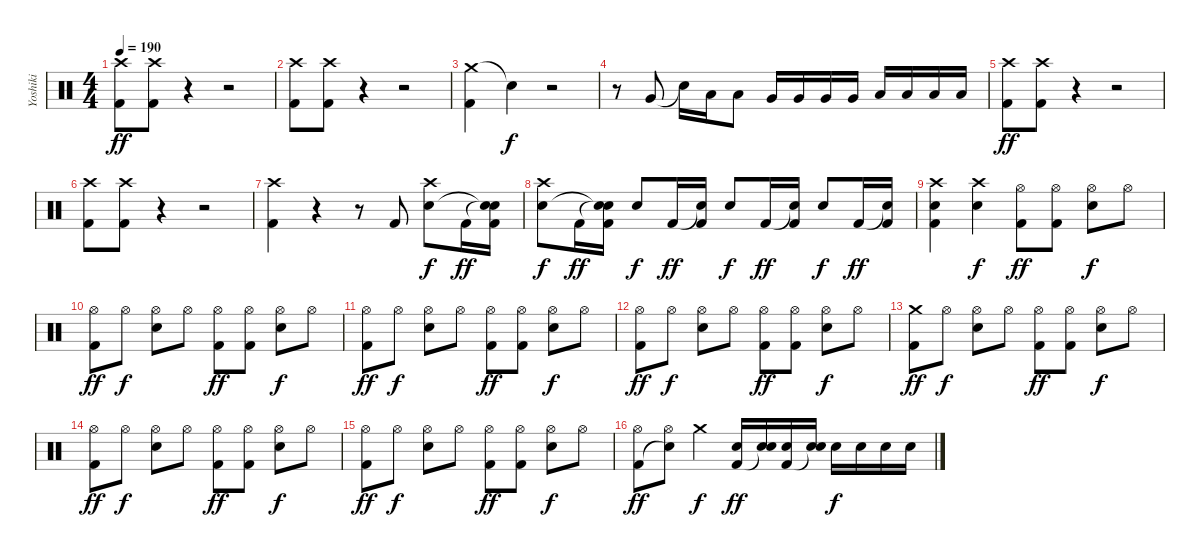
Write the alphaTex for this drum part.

\track ("Yoshiki" "Yoshiki") {instrument percussion}
\staff {score}
\articulation defaults
\ts (4 4)
\tempo 190
\clef neutral
\ks c
("Crash high (hit)" "Kick (hit) 2").8{dy ff} ("Crash high (hit)" "Kick (hit) 2").8 r.4 r.2 |
("Crash high (hit)" "Kick (hit) 2").8 ("Crash high (hit)" "Kick (hit) 2").8 r.4 r.2 |
("Crash medium (hit)" "Kick (hit) 2").4 "Snare (hit)"{t}.4{dy f} r.2 |
r.8 "Very Low Tom (hit)".8 "Snare (hit)"{t}.16 "Low Floor Tom (hit)".16 "Low Floor Tom (hit)".8 "Very Low Tom (hit)".16 "Very Low Tom (hit)".16 "Very Low Tom (hit)".16 "Very Low Tom (hit)".16 "Low Floor Tom (hit)".16 "Low Floor Tom (hit)".16 "Low Floor Tom (hit)".16 "Low Floor Tom (hit)".16 |
("Crash high (hit)" "Kick (hit) 2").8{dy ff} ("Crash high (hit)" "Kick (hit) 2").8 r.4 r.2 |
("Crash high (hit)" "Kick (hit) 2").8 ("Crash high (hit)" "Kick (hit) 2").8 r.4 r.2 |
("Crash high (hit)" "Kick (hit) 2").4 r.4 r.8 "Kick (hit) 2".8 ("Crash high (hit)" "Snare (hit) 2").8{dy f} "Kick (hit) 2".16{dy ff} ("Snare (hit)"{t} "Snare (hit)"{t} "Kick (hit) 2").16 |
("Crash high (hit)" "Snare (hit) 2").8{dy f} "Kick (hit) 2".16{dy ff} ("Snare (hit)"{t} "Snare (hit)"{t} "Kick (hit) 2").16 "Snare (hit) 2".8{dy f} "Kick (hit) 2".16{dy ff} ("Snare (hit)"{t} "Kick (hit) 2").16 "Snare (hit) 2".8{dy f} "Kick (hit) 2".16{dy ff} ("Snare (hit)"{t} "Kick (hit) 2").16 "Snare (hit) 2".8{dy f} "Kick (hit) 2".16{dy ff} ("Snare (hit)"{t} "Kick (hit) 2").16 |
("Crash high (hit)" "Snare (hit) 2" "Kick (hit) 2").4 ("Crash high (hit)" "Snare (hit) 2").4{dy f} ("Hi-Hat (open)" "Kick (hit) 2").8{dy ff} ("Hi-Hat (open)" "Kick (hit) 2").8 ("Hi-Hat (open)" "Snare (hit) 2").8{dy f} "Hi-Hat (open)".8 |
("Hi-Hat (open)" "Kick (hit) 2").8{dy ff} "Hi-Hat (open)".8{dy f} ("Hi-Hat (open)" "Snare (hit) 2").8 "Hi-Hat (open)".8 ("Hi-Hat (open)" "Kick (hit) 2").8{dy ff} ("Hi-Hat (open)" "Kick (hit) 2").8 ("Hi-Hat (open)" "Snare (hit) 2").8{dy f} "Hi-Hat (open)".8 |
("Hi-Hat (open)" "Kick (hit) 2").8{dy ff} "Hi-Hat (open)".8{dy f} ("Hi-Hat (open)" "Snare (hit) 2").8 "Hi-Hat (open)".8 ("Hi-Hat (open)" "Kick (hit) 2").8{dy ff} ("Hi-Hat (open)" "Kick (hit) 2").8 ("Hi-Hat (open)" "Snare (hit) 2").8{dy f} "Hi-Hat (open)".8 |
("Hi-Hat (open)" "Kick (hit) 2").8{dy ff} "Hi-Hat (open)".8{dy f} ("Hi-Hat (open)" "Snare (hit) 2").8 "Hi-Hat (open)".8 ("Hi-Hat (open)" "Kick (hit) 2").8{dy ff} ("Hi-Hat (open)" "Kick (hit) 2").8 ("Hi-Hat (open)" "Snare (hit) 2").8{dy f} "Hi-Hat (open)".8 |
("Crash medium (hit)" "Kick (hit) 2").8{dy ff} "Hi-Hat (open)".8{dy f} ("Hi-Hat (open)" "Snare (hit) 2").8 "Hi-Hat (open)".8 ("Hi-Hat (open)" "Kick (hit) 2").8{dy ff} ("Hi-Hat (open)" "Kick (hit) 2").8 ("Hi-Hat (open)" "Snare (hit) 2").8{dy f} "Hi-Hat (open)".8 |
("Hi-Hat (open)" "Kick (hit) 2").8{dy ff} "Hi-Hat (open)".8{dy f} ("Hi-Hat (open)" "Snare (hit) 2").8 "Hi-Hat (open)".8 ("Hi-Hat (open)" "Kick (hit) 2").8{dy ff} ("Hi-Hat (open)" "Kick (hit) 2").8 ("Hi-Hat (open)" "Snare (hit) 2").8{dy f} "Hi-Hat (open)".8 |
("Hi-Hat (open)" "Kick (hit) 2").8{dy ff} "Hi-Hat (open)".8{dy f} ("Hi-Hat (open)" "Snare (hit) 2").8 "Hi-Hat (open)".8 ("Hi-Hat (open)" "Kick (hit) 2").8{dy ff} ("Hi-Hat (open)" "Kick (hit) 2").8 ("Hi-Hat (open)" "Snare (hit) 2").8{dy f} "Hi-Hat (open)".8 |
("Hi-Hat (open)" "Kick (hit) 2").8{dy ff} ("Hi-Hat (open)" "Snare (hit)"{t}).8 "Crash medium (hit)".4{dy f} ("Snare (hit) 2" "Kick (hit) 2").16{dy ff} ("Snare (hit) 2" "Snare (hit)"{t}).16 ("Snare (hit) 2" "Kick (hit) 2").16 ("Snare (hit) 2" "Snare (hit)"{t}).16 "Snare (hit) 2".16{dy f} "Snare (hit) 2".16 "Snare (hit) 2".16 "Snare (hit) 2".16
